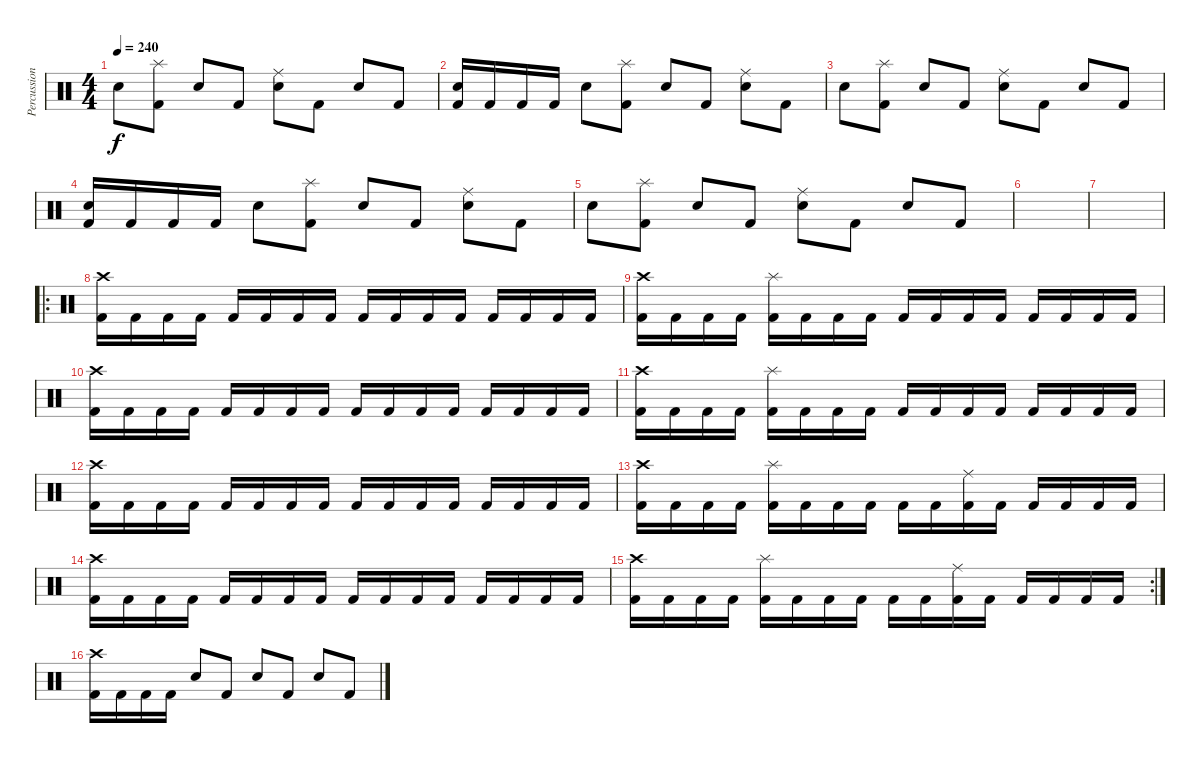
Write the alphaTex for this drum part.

\track ("Percussion" "Percussion") {instrument percussion}
\staff {score}
\articulation defaults
\ts (4 4)
\tempo 240
\clef neutral
\ks c "Electric Snare (hit)".8{dy f}
("Kick (hit) 2" "Splash (hit)").8 "Electric Snare (hit)".8 "Kick (hit) 2".8 ("Electric Snare (hit)" "Ride (middle)").8 "Kick (hit) 2".8 "Electric Snare (hit)".8 "Kick (hit) 2".8 |
("Kick (hit) 2" "Electric Snare (hit)").16 "Kick (hit) 2".16 "Kick (hit) 2".16 "Kick (hit) 2".16 "Electric Snare (hit)".8 ("Kick (hit) 2" "Splash (hit)").8 "Electric Snare (hit)".8 "Kick (hit) 2".8 ("Electric Snare (hit)" "Ride (middle)").8 "Kick (hit) 2".8 |
"Electric Snare (hit)".8 ("Kick (hit) 2" "Splash (hit)").8 "Electric Snare (hit)".8 "Kick (hit) 2".8 ("Electric Snare (hit)" "Ride (middle)").8 "Kick (hit) 2".8 "Electric Snare (hit)".8 "Kick (hit) 2".8 |
("Kick (hit) 2" "Electric Snare (hit)").16 "Kick (hit) 2".16 "Kick (hit) 2".16 "Kick (hit) 2".16 "Electric Snare (hit)".8 ("Kick (hit) 2" "Splash (hit)").8 "Electric Snare (hit)".8 "Kick (hit) 2".8 ("Electric Snare (hit)" "Ride (middle)").8 "Kick (hit) 2".8 |
"Electric Snare (hit)".8 ("Kick (hit) 2" "Splash (hit)").8 "Electric Snare (hit)".8 "Kick (hit) 2".8 ("Electric Snare (hit)" "Ride (middle)").8 "Kick (hit) 2".8 "Electric Snare (hit)".8 "Kick (hit) 2".8 |
|
|
\ro
("Kick (hit) 2" "Crash high (hit)").16 "Kick (hit) 2".16 "Kick (hit) 2".16 "Kick (hit) 2".16 "Kick (hit) 2".16 "Kick (hit) 2".16 "Kick (hit) 2".16 "Kick (hit) 2".16 "Kick (hit) 2".16 "Kick (hit) 2".16 "Kick (hit) 2".16 "Kick (hit) 2".16 "Kick (hit) 2".16 "Kick (hit) 2".16 "Kick (hit) 2".16 "Kick (hit) 2".16 |
("Kick (hit) 2" "Crash high (hit)").16 "Kick (hit) 2".16 "Kick (hit) 2".16 "Kick (hit) 2".16 ("Kick (hit) 2" "Splash (hit)").16 "Kick (hit) 2".16 "Kick (hit) 2".16 "Kick (hit) 2".16 "Kick (hit) 2".16 "Kick (hit) 2".16 "Kick (hit) 2".16 "Kick (hit) 2".16 "Kick (hit) 2".16 "Kick (hit) 2".16 "Kick (hit) 2".16 "Kick (hit) 2".16 |
("Kick (hit) 2" "Crash high (hit)").16 "Kick (hit) 2".16 "Kick (hit) 2".16 "Kick (hit) 2".16 "Kick (hit) 2".16 "Kick (hit) 2".16 "Kick (hit) 2".16 "Kick (hit) 2".16 "Kick (hit) 2".16 "Kick (hit) 2".16 "Kick (hit) 2".16 "Kick (hit) 2".16 "Kick (hit) 2".16 "Kick (hit) 2".16 "Kick (hit) 2".16 "Kick (hit) 2".16 |
("Kick (hit) 2" "Crash high (hit)").16 "Kick (hit) 2".16 "Kick (hit) 2".16 "Kick (hit) 2".16 ("Kick (hit) 2" "Splash (hit)").16 "Kick (hit) 2".16 "Kick (hit) 2".16 "Kick (hit) 2".16 "Kick (hit) 2".16 "Kick (hit) 2".16 "Kick (hit) 2".16 "Kick (hit) 2".16 "Kick (hit) 2".16 "Kick (hit) 2".16 "Kick (hit) 2".16 "Kick (hit) 2".16 |
("Kick (hit) 2" "Crash high (hit)").16 "Kick (hit) 2".16 "Kick (hit) 2".16 "Kick (hit) 2".16 "Kick (hit) 2".16 "Kick (hit) 2".16 "Kick (hit) 2".16 "Kick (hit) 2".16 "Kick (hit) 2".16 "Kick (hit) 2".16 "Kick (hit) 2".16 "Kick (hit) 2".16 "Kick (hit) 2".16 "Kick (hit) 2".16 "Kick (hit) 2".16 "Kick (hit) 2".16 |
("Kick (hit) 2" "Crash high (hit)").16 "Kick (hit) 2".16 "Kick (hit) 2".16 "Kick (hit) 2".16 ("Kick (hit) 2" "Splash (hit)").16 "Kick (hit) 2".16 "Kick (hit) 2".16 "Kick (hit) 2".16 "Kick (hit) 2".16 "Kick (hit) 2".16 ("Kick (hit) 2" "Ride (middle)").16 "Kick (hit) 2".16 "Kick (hit) 2".16 "Kick (hit) 2".16 "Kick (hit) 2".16 "Kick (hit) 2".16 |
("Kick (hit) 2" "Crash high (hit)").16 "Kick (hit) 2".16 "Kick (hit) 2".16 "Kick (hit) 2".16 "Kick (hit) 2".16 "Kick (hit) 2".16 "Kick (hit) 2".16 "Kick (hit) 2".16 "Kick (hit) 2".16 "Kick (hit) 2".16 "Kick (hit) 2".16 "Kick (hit) 2".16 "Kick (hit) 2".16 "Kick (hit) 2".16 "Kick (hit) 2".16 "Kick (hit) 2".16 |
\rc 2
("Kick (hit) 2" "Crash high (hit)").16 "Kick (hit) 2".16 "Kick (hit) 2".16 "Kick (hit) 2".16 ("Kick (hit) 2" "Splash (hit)").16 "Kick (hit) 2".16 "Kick (hit) 2".16 "Kick (hit) 2".16 "Kick (hit) 2".16 "Kick (hit) 2".16 ("Kick (hit) 2" "Ride (middle)").16 "Kick (hit) 2".16 "Kick (hit) 2".16 "Kick (hit) 2".16 "Kick (hit) 2".16 "Kick (hit) 2".16 |
("Kick (hit) 2" "Crash high (hit)").16 "Kick (hit) 2".16 "Kick (hit) 2".16 "Kick (hit) 2".16 "Electric Snare (hit)".8 "Kick (hit) 2".8 "Electric Snare (hit)".8 "Kick (hit) 2".8 "Electric Snare (hit)".8 "Kick (hit) 2".8
